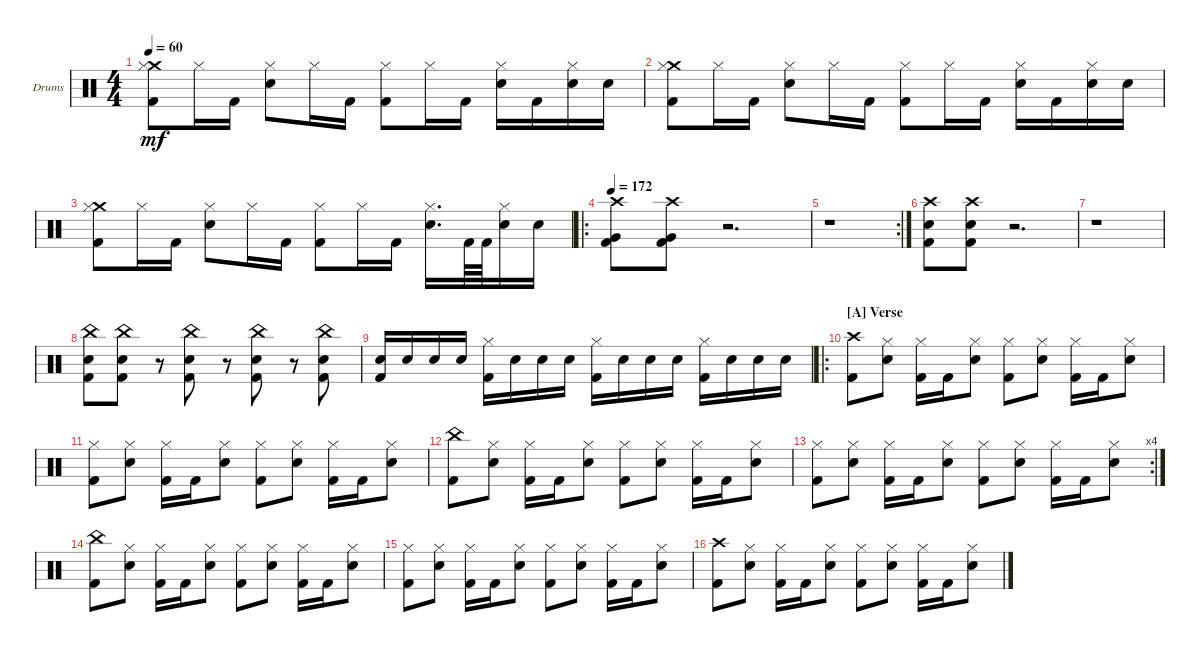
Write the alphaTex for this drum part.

\bracketExtendMode groupsimilarinstruments
\firstSystemTrackNameOrientation horizontal
\otherSystemsTrackNameOrientation horizontal
\track ("Drumkit" "Drums") {instrument percussion}
\staff {score}
\articulation defaults
\ts (4 4)
\tempo 60
\clef neutral
\ks c
("Kick (hit) 2" "Crash medium (hit)" "Hi-Hat (closed)").8{dy mf} "Hi-Hat (closed)".16 "Kick (hit) 2".16 ("Snare (hit) 2" "Hi-Hat (closed)").8 "Hi-Hat (closed)".16 "Kick (hit) 2".16 ("Kick (hit) 2" "Hi-Hat (closed)").8 "Hi-Hat (closed)".16 "Kick (hit) 2".16 ("Snare (hit) 2" "Hi-Hat (closed)").16 "Kick (hit) 2".16 ("Snare (hit) 2" "Hi-Hat (closed)").16 "Snare (hit) 2".16 |
("Kick (hit) 2" "Crash medium (hit)" "Hi-Hat (closed)").8 "Hi-Hat (closed)".16 "Kick (hit) 2".16 ("Snare (hit) 2" "Hi-Hat (closed)").8 "Hi-Hat (closed)".16 "Kick (hit) 2".16 ("Kick (hit) 2" "Hi-Hat (closed)").8 "Hi-Hat (closed)".16 "Kick (hit) 2".16 ("Snare (hit) 2" "Hi-Hat (closed)").16 "Kick (hit) 2".16 ("Snare (hit) 2" "Hi-Hat (closed)").16 "Snare (hit) 2".16 |
("Kick (hit) 2" "Crash medium (hit)" "Hi-Hat (closed)").8 "Hi-Hat (closed)".16 "Kick (hit) 2".16 ("Snare (hit) 2" "Hi-Hat (closed)").8 "Hi-Hat (closed)".16 "Kick (hit) 2".16 ("Kick (hit) 2" "Hi-Hat (closed)").8 "Hi-Hat (closed)".16 "Kick (hit) 2".16 ("Snare (hit) 2" "Hi-Hat (closed)").16{d} "Kick (hit) 2".64 "Kick (hit) 2".64 ("Snare (hit) 2" "Hi-Hat (closed)").16 "Snare (hit) 2".16 |
\ro
\tempo 172
("Kick (hit) 2" "Very Low Tom (hit)" "Crash high (hit)").8 ("Kick (hit) 2" "Very Low Tom (hit)" "Crash high (hit)").8 r.2{d} |
\rc 2
r.1 |
("Kick (hit) 2" "Crash high (hit)" "Snare (hit) 2").8 ("Kick (hit) 2" "Crash high (hit)" "Snare (hit) 2").8 r.2{d} |
r.1 |
("Kick (hit) 2" "Snare (hit) 2" "China (hit)").8 ("Snare (hit) 2" "Kick (hit) 2" "China (hit)").8 r.8 ("Kick (hit) 2" "Snare (hit) 2" "China (hit)").8 r.8 ("Kick (hit) 2" "Snare (hit) 2" "China (hit)").8 r.8 ("Kick (hit) 2" "Snare (hit) 2" "China (hit)").8 |
("Snare (hit) 2" "Kick (hit) 2").16 "Snare (hit) 2".16 "Snare (hit) 2".16 "Snare (hit) 2".16 ("Hi-Hat (closed)" "Kick (hit) 2").16 "Snare (hit) 2".16 "Snare (hit) 2".16 "Snare (hit) 2".16 ("Hi-Hat (closed)" "Kick (hit) 2").16 "Snare (hit) 2".16 "Snare (hit) 2".16 "Snare (hit) 2".16 ("Hi-Hat (closed)" "Kick (hit) 2").16 "Snare (hit) 2".16 "Snare (hit) 2".16 "Snare (hit) 2".16 |
\ro
\section ("A" "Verse")
("Kick (hit) 2" "Crash high (hit)").8 ("Snare (hit) 2" "Hi-Hat (closed)").8 ("Kick (hit) 2" "Hi-Hat (closed)").16 "Kick (hit) 2".16 ("Snare (hit) 2" "Hi-Hat (closed)").8 ("Kick (hit) 2" "Hi-Hat (closed)").8 ("Snare (hit) 2" "Hi-Hat (closed)").8 ("Kick (hit) 2" "Hi-Hat (closed)").16 "Kick (hit) 2".16 ("Snare (hit) 2" "Hi-Hat (closed)").8 |
("Kick (hit) 2" "Hi-Hat (closed)").8 ("Snare (hit) 2" "Hi-Hat (closed)").8 ("Kick (hit) 2" "Hi-Hat (closed)").16 "Kick (hit) 2".16 ("Snare (hit) 2" "Hi-Hat (closed)").8 ("Kick (hit) 2" "Hi-Hat (closed)").8 ("Snare (hit) 2" "Hi-Hat (closed)").8 ("Kick (hit) 2" "Hi-Hat (closed)").16 "Kick (hit) 2".16 ("Snare (hit) 2" "Hi-Hat (closed)").8 |
("Kick (hit) 2" "China (hit)").8 ("Snare (hit) 2" "Hi-Hat (closed)").8 ("Kick (hit) 2" "Hi-Hat (closed)").16 "Kick (hit) 2".16 ("Snare (hit) 2" "Hi-Hat (closed)").8 ("Kick (hit) 2" "Hi-Hat (closed)").8 ("Snare (hit) 2" "Hi-Hat (closed)").8 ("Kick (hit) 2" "Hi-Hat (closed)").16 "Kick (hit) 2".16 ("Snare (hit) 2" "Hi-Hat (closed)").8 |
\rc 4
("Kick (hit) 2" "Hi-Hat (closed)").8 ("Snare (hit) 2" "Hi-Hat (closed)").8 ("Kick (hit) 2" "Hi-Hat (closed)").16 "Kick (hit) 2".16 ("Snare (hit) 2" "Hi-Hat (closed)").8 ("Kick (hit) 2" "Hi-Hat (closed)").8 ("Snare (hit) 2" "Hi-Hat (closed)").8 ("Kick (hit) 2" "Hi-Hat (closed)").16 "Kick (hit) 2".16 ("Snare (hit) 2" "Hi-Hat (closed)").8 |
("Kick (hit) 2" "China (hit)").8 ("Snare (hit) 2" "Hi-Hat (closed)").8 ("Kick (hit) 2" "Hi-Hat (closed)").16 "Kick (hit) 2".16 ("Snare (hit) 2" "Hi-Hat (closed)").8 ("Kick (hit) 2" "Hi-Hat (closed)").8 ("Snare (hit) 2" "Hi-Hat (closed)").8 ("Kick (hit) 2" "Hi-Hat (closed)").16 "Kick (hit) 2".16 ("Snare (hit) 2" "Hi-Hat (closed)").8 |
("Kick (hit) 2" "Hi-Hat (closed)").8 ("Snare (hit) 2" "Hi-Hat (closed)").8 ("Kick (hit) 2" "Hi-Hat (closed)").16 "Kick (hit) 2".16 ("Snare (hit) 2" "Hi-Hat (closed)").8 ("Kick (hit) 2" "Hi-Hat (closed)").8 ("Snare (hit) 2" "Hi-Hat (closed)").8 ("Kick (hit) 2" "Hi-Hat (closed)").16 "Kick (hit) 2".16 ("Snare (hit) 2" "Hi-Hat (closed)").8 |
("Kick (hit) 2" "Crash high (hit)").8 ("Snare (hit) 2" "Hi-Hat (closed)").8 ("Kick (hit) 2" "Hi-Hat (closed)").16 "Kick (hit) 2".16 ("Snare (hit) 2" "Hi-Hat (closed)").8 ("Kick (hit) 2" "Hi-Hat (closed)").8 ("Snare (hit) 2" "Hi-Hat (closed)").8 ("Kick (hit) 2" "Hi-Hat (closed)").16 "Kick (hit) 2".16 ("Snare (hit) 2" "Hi-Hat (closed)").8
